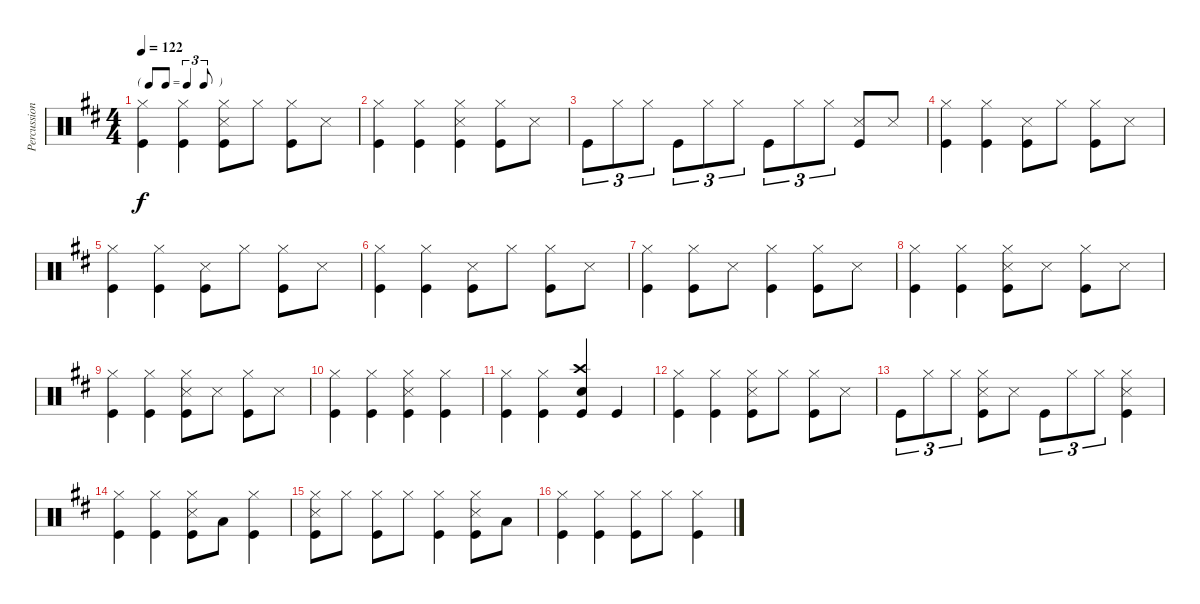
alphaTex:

\track ("Percussion" "Percussion") {instrument percussion}
\staff {score}
\articulation defaults
\ts (4 4)
\tf triplet8th
\tempo 122
\clef neutral
\ks d
("Hi-Hat (closed)" "Kick (hit)").4{dy f} ("Hi-Hat (closed)" "Kick (hit)").4 ("Hi-Hat (closed)" "Snare (side stick) 3" "Kick (hit)").8 "Hi-Hat (closed)".8 ("Hi-Hat (closed)" "Kick (hit)").8 "Snare (side stick) 3".8 |
("Hi-Hat (closed)" "Kick (hit)").4 ("Hi-Hat (closed)" "Kick (hit)").4 ("Hi-Hat (closed)" "Snare (side stick) 3" "Kick (hit)").4 ("Hi-Hat (closed)" "Kick (hit)").8 "Snare (side stick) 3".8 |
"Kick (hit)".8{tu (3 2)} "Hi-Hat (closed)".8{tu (3 2)} "Hi-Hat (closed)".8{tu (3 2)} "Kick (hit)".8{tu (3 2)} "Hi-Hat (closed)".8{tu (3 2)} "Hi-Hat (closed)".8{tu (3 2)} "Kick (hit)".8{tu (3 2)} "Hi-Hat (closed)".8{tu (3 2)} "Hi-Hat (closed)".8{tu (3 2)} ("Snare (side stick) 3" "Kick (hit)").8 "Snare (side stick) 3".8 |
("Hi-Hat (closed)" "Kick (hit)").4 ("Hi-Hat (closed)" "Kick (hit)").4 ("Snare (side stick) 3" "Kick (hit)").8 "Hi-Hat (closed)".8 ("Hi-Hat (closed)" "Kick (hit)").8 "Snare (side stick) 3".8 |
("Hi-Hat (closed)" "Kick (hit)").4 ("Hi-Hat (closed)" "Kick (hit)").4 ("Snare (side stick) 3" "Kick (hit)").8 "Hi-Hat (closed)".8 ("Hi-Hat (closed)" "Kick (hit)").8 "Snare (side stick) 3".8 |
("Hi-Hat (closed)" "Kick (hit)").4 ("Hi-Hat (closed)" "Kick (hit)").4 ("Snare (side stick) 3" "Kick (hit)").8 "Hi-Hat (closed)".8 ("Hi-Hat (closed)" "Kick (hit)").8 "Snare (side stick) 3".8 |
("Hi-Hat (closed)" "Kick (hit)").4 ("Hi-Hat (closed)" "Kick (hit)").8 "Snare (side stick) 3".8 ("Hi-Hat (closed)" "Kick (hit)").4 ("Hi-Hat (closed)" "Kick (hit)").8 "Snare (side stick) 3".8 |
("Hi-Hat (closed)" "Kick (hit)").4 ("Hi-Hat (closed)" "Kick (hit)").4 ("Hi-Hat (closed)" "Snare (side stick) 3" "Kick (hit)").8 "Snare (side stick) 3".8 ("Hi-Hat (closed)" "Kick (hit)").8 "Snare (side stick) 3".8 |
("Hi-Hat (closed)" "Kick (hit)").4 ("Hi-Hat (closed)" "Kick (hit)").4 ("Hi-Hat (closed)" "Snare (side stick) 3" "Kick (hit)").8 "Snare (side stick) 3".8 ("Hi-Hat (closed)" "Kick (hit)").8 "Snare (side stick) 3".8 |
("Hi-Hat (closed)" "Kick (hit)").4 ("Hi-Hat (closed)" "Kick (hit)").4 ("Hi-Hat (closed)" "Snare (side stick) 3" "Kick (hit)").4 ("Hi-Hat (closed)" "Kick (hit)").4 |
("Hi-Hat (closed)" "Kick (hit)").4 ("Hi-Hat (closed)" "Kick (hit)").4 ("Crash high (hit)" "Snare (hit) 2" "Kick (hit)").4 "Kick (hit)".4 |
("Hi-Hat (closed)" "Kick (hit)").4 ("Hi-Hat (closed)" "Kick (hit)").4 ("Hi-Hat (closed)" "Snare (side stick) 3" "Kick (hit)").8 "Hi-Hat (closed)".8 ("Hi-Hat (closed)" "Kick (hit)").8 "Snare (side stick) 3".8 |
"Kick (hit)".8{tu (3 2)} "Hi-Hat (closed)".8{tu (3 2)} "Hi-Hat (closed)".8{tu (3 2)} ("Hi-Hat (closed)" "Snare (side stick) 3" "Kick (hit)").8 "Snare (side stick) 3".8 "Kick (hit)".8{tu (3 2)} "Hi-Hat (closed)".8{tu (3 2)} "Hi-Hat (closed)".8{tu (3 2)} ("Hi-Hat (closed)" "Snare (side stick) 3" "Kick (hit)").4 |
("Hi-Hat (closed)" "Kick (hit)").4 ("Hi-Hat (closed)" "Kick (hit)").4 ("Hi-Hat (closed)" "Snare (side stick) 3" "Kick (hit)").8 "Low Tom (hit)".8 ("Hi-Hat (closed)" "Kick (hit)").4 |
("Hi-Hat (closed)" "Snare (side stick) 3" "Kick (hit)").8 "Hi-Hat (closed)".8 ("Hi-Hat (closed)" "Kick (hit)").8 "Hi-Hat (closed)".8 ("Hi-Hat (closed)" "Kick (hit)").4 ("Hi-Hat (closed)" "Snare (side stick) 3" "Kick (hit)").8 "Low Tom (hit)".8 |
("Hi-Hat (closed)" "Kick (hit)").4 ("Hi-Hat (closed)" "Kick (hit)").4 ("Hi-Hat (closed)" "Kick (hit)").8 "Hi-Hat (closed)".8 ("Hi-Hat (closed)" "Kick (hit)").4
